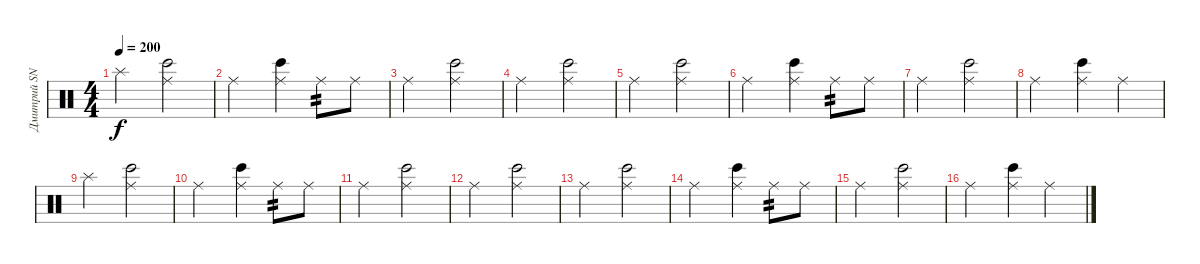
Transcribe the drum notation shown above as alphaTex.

\track ("Дмитрий SNAKE Хакимов" "Дмитрий SN") {instrument percussion}
\staff {score}
\articulation defaults
\ts (4 4)
\tempo 200
\clef neutral
\ks c "Splash (hit)".2{dy f}
("Ride (middle)" "Bongo High (hit)").2 |
"Ride (middle)".2 ("Ride (middle)" "Bongo High (hit)").4 "Ride (middle)".8{tp 2} "Ride (middle)".8 |
"Ride (middle)".2 ("Ride (middle)" "Bongo High (hit)").2 |
"Ride (middle)".2 ("Ride (middle)" "Bongo High (hit)").2 |
"Ride (middle)".2 ("Ride (middle)" "Bongo High (hit)").2 |
"Ride (middle)".2 ("Ride (middle)" "Bongo High (hit)").4 "Ride (middle)".8{tp 2} "Ride (middle)".8 |
"Ride (middle)".2 ("Ride (middle)" "Bongo High (hit)").2 |
"Ride (middle)".2 ("Ride (middle)" "Bongo High (hit)").4 "Ride (middle)".4 |
"Splash (hit)".2 ("Ride (middle)" "Bongo High (hit)").2 |
"Ride (middle)".2 ("Ride (middle)" "Bongo High (hit)").4 "Ride (middle)".8{tp 2} "Ride (middle)".8 |
"Ride (middle)".2 ("Ride (middle)" "Bongo High (hit)").2 |
"Ride (middle)".2 ("Ride (middle)" "Bongo High (hit)").2 |
"Ride (middle)".2 ("Ride (middle)" "Bongo High (hit)").2 |
"Ride (middle)".2 ("Ride (middle)" "Bongo High (hit)").4 "Ride (middle)".8{tp 2} "Ride (middle)".8 |
"Ride (middle)".2 ("Ride (middle)" "Bongo High (hit)").2 |
"Ride (middle)".2 ("Ride (middle)" "Bongo High (hit)").4 "Ride (middle)".4
